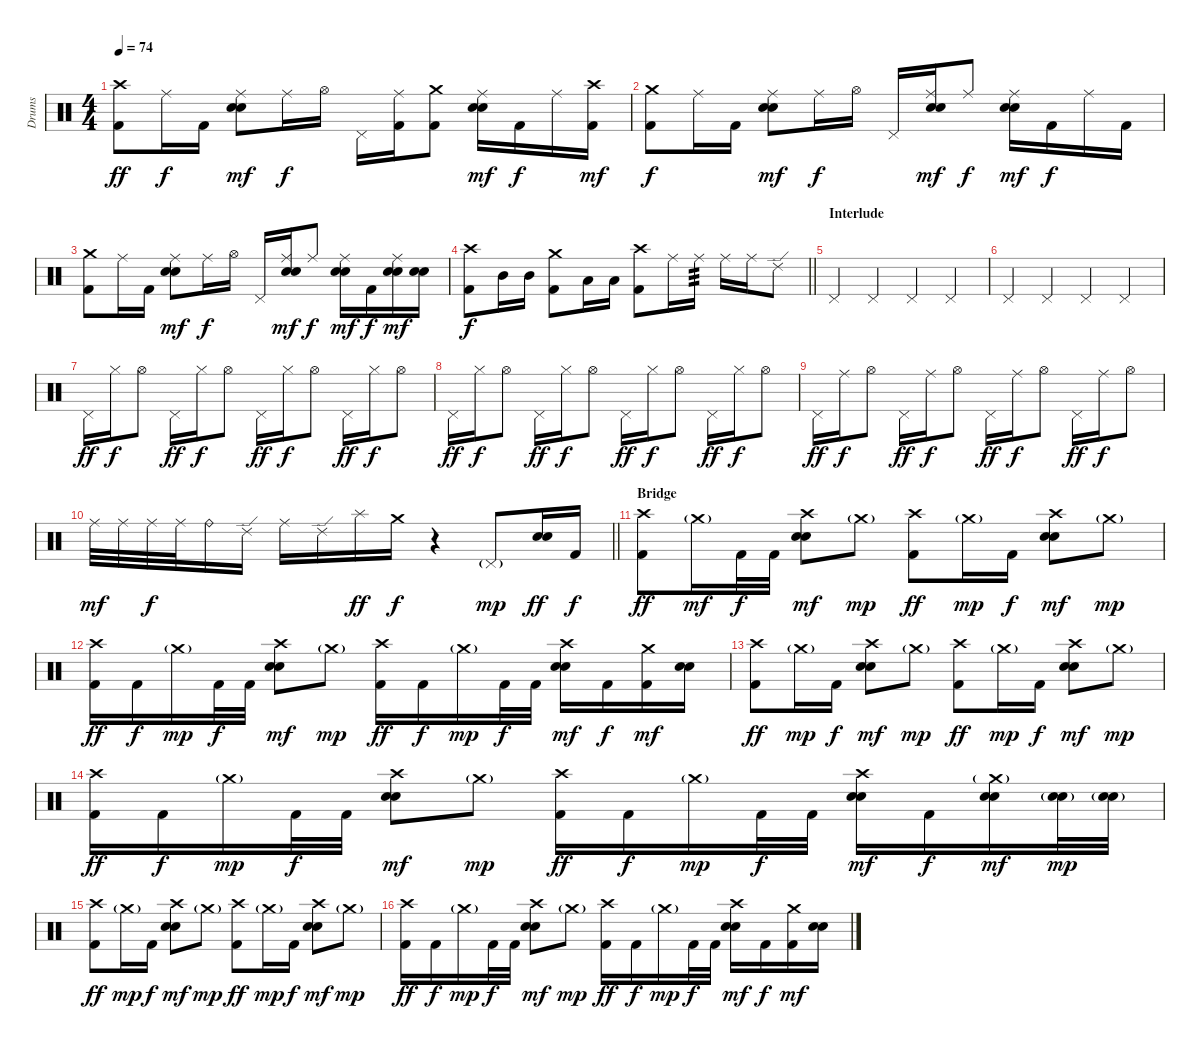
\track ("Drums" "Drums") {instrument percussion}
\staff {score}
\articulation defaults
\ts (4 4)
\tempo 74
\clef neutral
\ks c
("Crash high (hit)" "Kick (hit) 2").8{dy ff} "Ride (middle)".16{dy f} "Kick (hit) 2".16 ("Ride (middle)" "Electric Snare (hit)" "Snare (hit) 2").8{dy mf} "Ride (middle)".16{dy f} "Hi-Hat (open)".16 "Pedal Hi-Hat (hit)".16 ("Ride (middle)" "Kick (hit) 2").16 ("Crash medium (hit)" "Kick (hit) 2").8 ("Ride (middle)" "Electric Snare (hit)" "Snare (hit) 2").16{dy mf} "Kick (hit) 2".16{dy f} "Ride (middle)".16 ("Crash high (hit)" "Kick (hit) 2").16{dy mf} |
("Crash medium (hit)" "Kick (hit) 2").8{dy f} "Ride (middle)".16 "Kick (hit) 2".16 ("Ride (middle)" "Electric Snare (hit)" "Snare (hit) 2").8{dy mf} "Ride (middle)".16{dy f} "Hi-Hat (open)".16 "Pedal Hi-Hat (hit)".16 ("Ride (middle)" "Electric Snare (hit)" "Snare (hit) 2").16{dy mf} "Ride (middle)".8{dy f} ("Ride (middle)" "Electric Snare (hit)" "Snare (hit) 2").16{dy mf} "Kick (hit) 2".16{dy f} "Ride (middle)".16 "Kick (hit) 2".16 |
("Crash medium (hit)" "Kick (hit) 2").8 "Ride (middle)".16 "Kick (hit) 2".16 ("Ride (middle)" "Electric Snare (hit)" "Snare (hit) 2").8{dy mf} "Ride (middle)".16{dy f} "Hi-Hat (open)".16 "Pedal Hi-Hat (hit)".16 ("Ride (middle)" "Electric Snare (hit)" "Snare (hit) 2").16{dy mf} "Ride (middle)".8{dy f} ("Ride (middle)" "Electric Snare (hit)" "Snare (hit) 2").16{dy mf} "Kick (hit) 2".16{dy f} ("Ride (middle)" "Electric Snare (hit)" "Snare (hit) 2").16{dy mf} ("Electric Snare (hit)" "Snare (hit) 2").16 |
\barLineRight lightlight
("Crash high (hit)" "Kick (hit) 2").8{dy f} "Mid Tom (hit)".16 "Mid Tom (hit)".16 ("Crash medium (hit)" "Kick (hit) 2").8 "Low Tom (hit)".16 "Low Tom (hit)".16 ("Crash high (hit)" "Kick (hit) 2").8 "Ride (middle)".16 "Ride (middle)".16{tp 3} "Ride (middle)".16 "Ride (middle)".16 "Ride (edge) 2".8 |
\section ("" "Interlude")
"Pedal Hi-Hat (hit)".4 "Pedal Hi-Hat (hit)".4 "Pedal Hi-Hat (hit)".4 "Pedal Hi-Hat (hit)".4 |
"Pedal Hi-Hat (hit)".4 "Pedal Hi-Hat (hit)".4 "Pedal Hi-Hat (hit)".4 "Pedal Hi-Hat (hit)".4 |
"Pedal Hi-Hat (hit)".16{dy ff} "Hi-Hat (closed)".16{dy f} "Hi-Hat (open)".8 "Pedal Hi-Hat (hit)".16{dy ff} "Hi-Hat (closed)".16{dy f} "Hi-Hat (open)".8 "Pedal Hi-Hat (hit)".16{dy ff} "Hi-Hat (closed)".16{dy f} "Hi-Hat (open)".8 "Pedal Hi-Hat (hit)".16{dy ff} "Hi-Hat (closed)".16{dy f} "Hi-Hat (open)".8 |
"Pedal Hi-Hat (hit)".16{dy ff} "Hi-Hat (closed)".16{dy f} "Hi-Hat (open)".8 "Pedal Hi-Hat (hit)".16{dy ff} "Hi-Hat (closed)".16{dy f} "Hi-Hat (open)".8 "Pedal Hi-Hat (hit)".16{dy ff} "Hi-Hat (closed)".16{dy f} "Hi-Hat (open)".8 "Pedal Hi-Hat (hit)".16{dy ff} "Hi-Hat (closed)".16{dy f} "Hi-Hat (open)".8 |
"Pedal Hi-Hat (hit)".16{dy ff} "Ride (middle)".16{dy f} "Hi-Hat (open)".8 "Pedal Hi-Hat (hit)".16{dy ff} "Ride (middle)".16{dy f} "Hi-Hat (open)".8 "Pedal Hi-Hat (hit)".16{dy ff} "Ride (middle)".16{dy f} "Hi-Hat (open)".8 "Pedal Hi-Hat (hit)".16{dy ff} "Ride (middle)".16{dy f} "Hi-Hat (open)".8 |
\barLineRight lightlight "Ride (middle)".32{dy mf} "Ride (middle)".32 "Ride (middle)".32{dy f} "Ride (middle)".32 "Ride (bell)".16 "Ride (edge) 2".16 "Ride (middle)".16 "Ride (edge) 2".16 "Splash (hit)".16{dy ff} "Crash medium (hit)".16{dy f}
r.4 "Pedal Hi-Hat (hit)"{g}.8{dy mp} ("Electric Snare (hit)" "Snare (hit) 2").16{dy ff} "Kick (hit) 2".16{dy f} |
\section ("" "Bridge")
("Crash high (hit)" "Kick (hit) 2").8{dy ff} "Crash medium (hit)"{g}.16{dy mf} "Kick (hit) 2".32{dy f} "Kick (hit) 2".32 ("Crash high (hit)" "Electric Snare (hit)" "Snare (hit) 2").8{dy mf} "Crash medium (hit)"{g}.8{dy mp} ("Crash high (hit)" "Kick (hit) 2").8{dy ff} "Crash medium (hit)"{g}.16{dy mp} "Kick (hit) 2".16{dy f} ("Crash high (hit)" "Electric Snare (hit)" "Snare (hit) 2").8{dy mf} "Crash medium (hit)"{g}.8{dy mp} |
("Crash high (hit)" "Kick (hit) 2").16{dy ff} "Kick (hit) 2".16{dy f} "Crash medium (hit)"{g}.16{dy mp} "Kick (hit) 2".32{dy f} "Kick (hit) 2".32 ("Crash high (hit)" "Electric Snare (hit)" "Snare (hit) 2").8{dy mf} "Crash medium (hit)"{g}.8{dy mp} ("Crash high (hit)" "Kick (hit) 2").16{dy ff} "Kick (hit) 2".16{dy f} "Crash medium (hit)"{g}.16{dy mp} "Kick (hit) 2".32{dy f} "Kick (hit) 2".32 ("Crash high (hit)" "Electric Snare (hit)" "Snare (hit) 2").16{dy mf} "Kick (hit) 2".16{dy f} ("Crash medium (hit)" "Kick (hit) 2").16{dy mf} ("Electric Snare (hit)" "Snare (hit) 2").16 |
("Crash high (hit)" "Kick (hit) 2").8{dy ff} "Crash medium (hit)"{g}.16{dy mp} "Kick (hit) 2".16{dy f} ("Crash high (hit)" "Electric Snare (hit)" "Snare (hit) 2").8{dy mf} "Crash medium (hit)"{g}.8{dy mp} ("Crash high (hit)" "Kick (hit) 2").8{dy ff} "Crash medium (hit)"{g}.16{dy mp} "Kick (hit) 2".16{dy f} ("Crash high (hit)" "Electric Snare (hit)" "Snare (hit) 2").8{dy mf} "Crash medium (hit)"{g}.8{dy mp} |
("Crash high (hit)" "Kick (hit) 2").16{dy ff} "Kick (hit) 2".16{dy f} "Crash medium (hit)"{g}.16{dy mp} "Kick (hit) 2".32{dy f} "Kick (hit) 2".32 ("Crash high (hit)" "Electric Snare (hit)" "Snare (hit) 2").8{dy mf} "Crash medium (hit)"{g}.8{dy mp} ("Crash high (hit)" "Kick (hit) 2").16{dy ff} "Kick (hit) 2".16{dy f} "Crash medium (hit)"{g}.16{dy mp} "Kick (hit) 2".32{dy f} "Kick (hit) 2".32 ("Crash high (hit)" "Electric Snare (hit)" "Snare (hit) 2").16{dy mf} "Kick (hit) 2".16{dy f} ("Crash medium (hit)"{g} "Electric Snare (hit)" "Snare (hit) 2").16{dy mf} ("Electric Snare (hit)"{g} "Snare (hit) 2"{g}).32{dy mp} ("Electric Snare (hit)"{g} "Snare (hit) 2"{g}).32 |
("Crash high (hit)" "Kick (hit) 2").8{dy ff} "Crash medium (hit)"{g}.16{dy mp} "Kick (hit) 2".16{dy f} ("Crash high (hit)" "Electric Snare (hit)" "Snare (hit) 2").8{dy mf} "Crash medium (hit)"{g}.8{dy mp} ("Crash high (hit)" "Kick (hit) 2").8{dy ff} "Crash medium (hit)"{g}.16{dy mp} "Kick (hit) 2".16{dy f} ("Crash high (hit)" "Electric Snare (hit)" "Snare (hit) 2").8{dy mf} "Crash medium (hit)"{g}.8{dy mp} |
("Crash high (hit)" "Kick (hit) 2").16{dy ff} "Kick (hit) 2".16{dy f} "Crash medium (hit)"{g}.16{dy mp} "Kick (hit) 2".32{dy f} "Kick (hit) 2".32 ("Crash high (hit)" "Electric Snare (hit)" "Snare (hit) 2").8{dy mf} "Crash medium (hit)"{g}.8{dy mp} ("Crash high (hit)" "Kick (hit) 2").16{dy ff} "Kick (hit) 2".16{dy f} "Crash medium (hit)"{g}.16{dy mp} "Kick (hit) 2".32{dy f} "Kick (hit) 2".32 ("Crash high (hit)" "Electric Snare (hit)" "Snare (hit) 2").16{dy mf} "Kick (hit) 2".16{dy f} ("Crash medium (hit)" "Kick (hit) 2").16{dy mf} ("Electric Snare (hit)" "Snare (hit) 2").16
